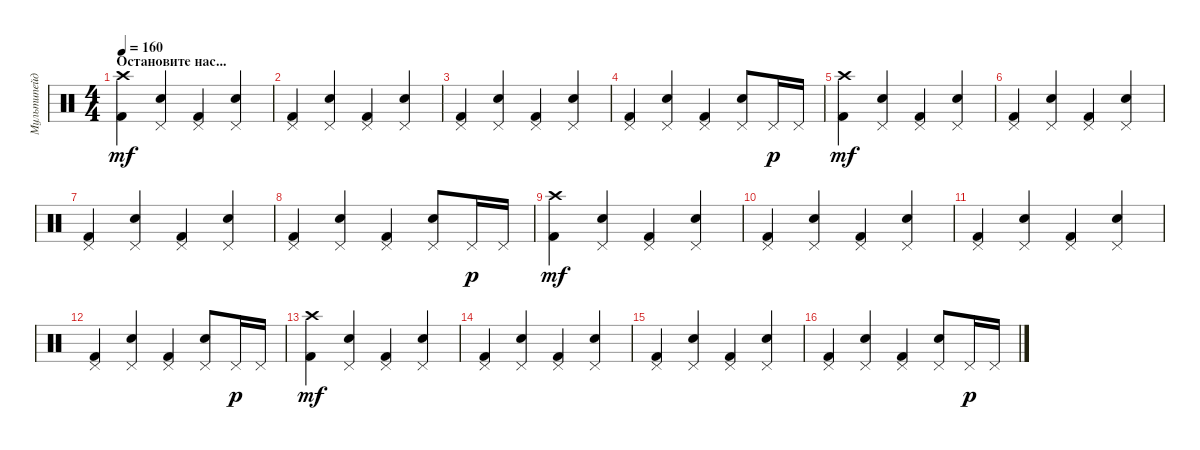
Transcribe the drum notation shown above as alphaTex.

\track ("Мультипейджер" "Мультипейд") {instrument percussion}
\staff {score}
\articulation defaults
\ts (4 4)
\section ("" "Остановите нас...")
\tempo 160
\clef neutral
\ks c
("Crash high (hit)" "Kick (hit) 2").4{dy mf} ("Pedal Hi-Hat (hit)" "Snare (hit) 2").4 ("Pedal Hi-Hat (hit)" "Kick (hit) 2").4 ("Pedal Hi-Hat (hit)" "Snare (hit) 2").4 |
("Pedal Hi-Hat (hit)" "Kick (hit) 2").4 ("Pedal Hi-Hat (hit)" "Snare (hit) 2").4 ("Pedal Hi-Hat (hit)" "Kick (hit) 2").4 ("Pedal Hi-Hat (hit)" "Snare (hit) 2").4 |
("Pedal Hi-Hat (hit)" "Kick (hit) 2").4 ("Pedal Hi-Hat (hit)" "Snare (hit) 2").4 ("Pedal Hi-Hat (hit)" "Kick (hit) 2").4 ("Pedal Hi-Hat (hit)" "Snare (hit) 2").4 |
("Pedal Hi-Hat (hit)" "Kick (hit) 2").4 ("Pedal Hi-Hat (hit)" "Snare (hit) 2").4 ("Pedal Hi-Hat (hit)" "Kick (hit) 2").4 ("Pedal Hi-Hat (hit)" "Snare (hit) 2").8 "Pedal Hi-Hat (hit)".16{dy p} "Pedal Hi-Hat (hit)".16 |
("Crash high (hit)" "Kick (hit) 2").4{dy mf} ("Pedal Hi-Hat (hit)" "Snare (hit) 2").4 ("Pedal Hi-Hat (hit)" "Kick (hit) 2").4 ("Pedal Hi-Hat (hit)" "Snare (hit) 2").4 |
("Pedal Hi-Hat (hit)" "Kick (hit) 2").4 ("Pedal Hi-Hat (hit)" "Snare (hit) 2").4 ("Pedal Hi-Hat (hit)" "Kick (hit) 2").4 ("Pedal Hi-Hat (hit)" "Snare (hit) 2").4 |
("Pedal Hi-Hat (hit)" "Kick (hit) 2").4 ("Pedal Hi-Hat (hit)" "Snare (hit) 2").4 ("Pedal Hi-Hat (hit)" "Kick (hit) 2").4 ("Pedal Hi-Hat (hit)" "Snare (hit) 2").4 |
("Pedal Hi-Hat (hit)" "Kick (hit) 2").4 ("Pedal Hi-Hat (hit)" "Snare (hit) 2").4 ("Pedal Hi-Hat (hit)" "Kick (hit) 2").4 ("Pedal Hi-Hat (hit)" "Snare (hit) 2").8 "Pedal Hi-Hat (hit)".16{dy p} "Pedal Hi-Hat (hit)".16 |
("Crash high (hit)" "Kick (hit) 2").4{dy mf} ("Pedal Hi-Hat (hit)" "Snare (hit) 2").4 ("Pedal Hi-Hat (hit)" "Kick (hit) 2").4 ("Pedal Hi-Hat (hit)" "Snare (hit) 2").4 |
("Pedal Hi-Hat (hit)" "Kick (hit) 2").4 ("Pedal Hi-Hat (hit)" "Snare (hit) 2").4 ("Pedal Hi-Hat (hit)" "Kick (hit) 2").4 ("Pedal Hi-Hat (hit)" "Snare (hit) 2").4 |
("Pedal Hi-Hat (hit)" "Kick (hit) 2").4 ("Pedal Hi-Hat (hit)" "Snare (hit) 2").4 ("Pedal Hi-Hat (hit)" "Kick (hit) 2").4 ("Pedal Hi-Hat (hit)" "Snare (hit) 2").4 |
("Pedal Hi-Hat (hit)" "Kick (hit) 2").4 ("Pedal Hi-Hat (hit)" "Snare (hit) 2").4 ("Pedal Hi-Hat (hit)" "Kick (hit) 2").4 ("Pedal Hi-Hat (hit)" "Snare (hit) 2").8 "Pedal Hi-Hat (hit)".16{dy p} "Pedal Hi-Hat (hit)".16 |
("Crash high (hit)" "Kick (hit) 2").4{dy mf} ("Pedal Hi-Hat (hit)" "Snare (hit) 2").4 ("Pedal Hi-Hat (hit)" "Kick (hit) 2").4 ("Pedal Hi-Hat (hit)" "Snare (hit) 2").4 |
("Pedal Hi-Hat (hit)" "Kick (hit) 2").4 ("Pedal Hi-Hat (hit)" "Snare (hit) 2").4 ("Pedal Hi-Hat (hit)" "Kick (hit) 2").4 ("Pedal Hi-Hat (hit)" "Snare (hit) 2").4 |
("Pedal Hi-Hat (hit)" "Kick (hit) 2").4 ("Pedal Hi-Hat (hit)" "Snare (hit) 2").4 ("Pedal Hi-Hat (hit)" "Kick (hit) 2").4 ("Pedal Hi-Hat (hit)" "Snare (hit) 2").4 |
("Pedal Hi-Hat (hit)" "Kick (hit) 2").4 ("Pedal Hi-Hat (hit)" "Snare (hit) 2").4 ("Pedal Hi-Hat (hit)" "Kick (hit) 2").4 ("Pedal Hi-Hat (hit)" "Snare (hit) 2").8 "Pedal Hi-Hat (hit)".16{dy p} "Pedal Hi-Hat (hit)".16
